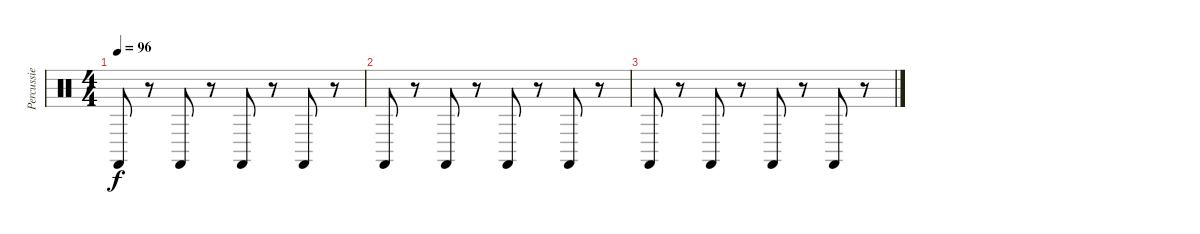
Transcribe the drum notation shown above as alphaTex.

\track ("Percussie" "Percussie") {instrument percussion}
\staff {score}
\articulation defaults
\ts (4 4)
\tempo 96
\clef neutral
\ks c "Castanets (hit)".8{dy f}
r.8 "Castanets (hit)".8 r.8 "Castanets (hit)".8 r.8 "Castanets (hit)".8 r.8 |
"Castanets (hit)".8 r.8 "Castanets (hit)".8 r.8 "Castanets (hit)".8 r.8 "Castanets (hit)".8 r.8 |
"Castanets (hit)".8 r.8 "Castanets (hit)".8 r.8 "Castanets (hit)".8 r.8 "Castanets (hit)".8 r.8
